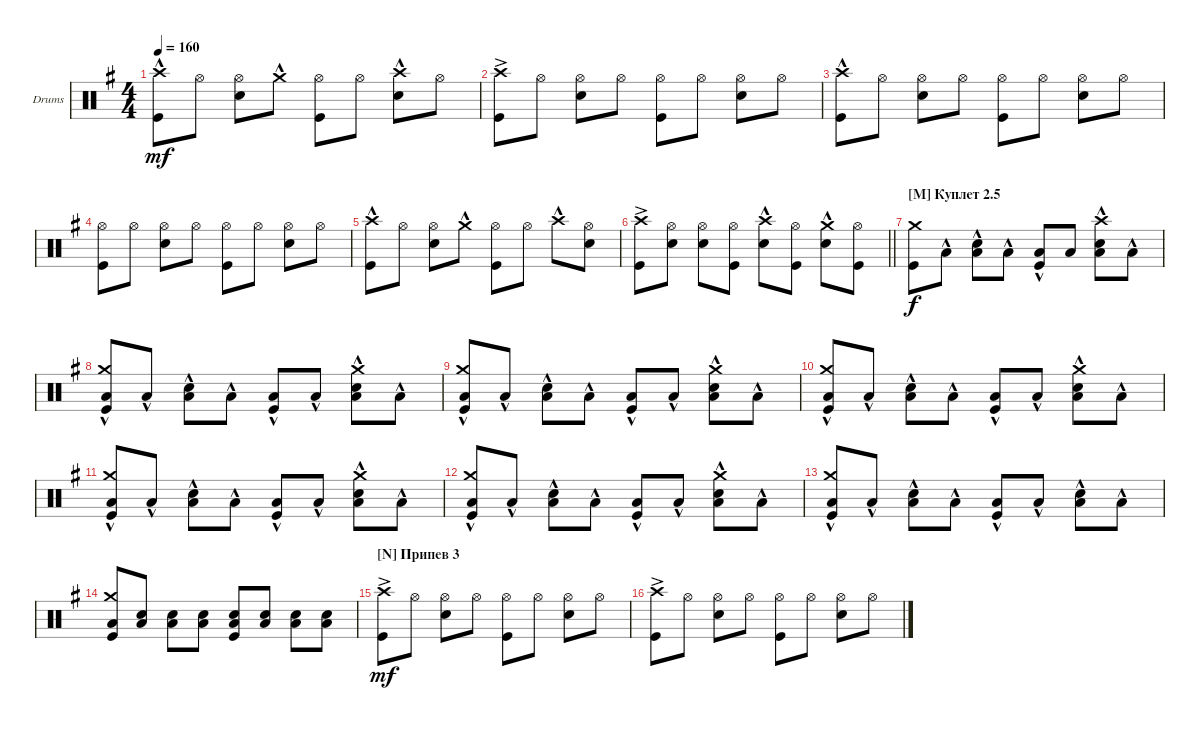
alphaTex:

\defaultSystemsLayout 4
\bracketExtendMode groupsimilarinstruments
\firstSystemTrackNameOrientation horizontal
\otherSystemsTrackNameOrientation horizontal
\track ("Drumkit" "Drums") {instrument percussion}
\staff {score}
\articulation defaults
\ts (4 4)
\tempo 160
\clef neutral
\ks eminor
("Kick (hit)" "Crash high (hit)"{hac}).8{dy mf} "Hi-Hat (open)".8 ("Hi-Hat (open)" "Snare (hit) 2").8 "Crash medium (hit)"{hac}.8 ("Hi-Hat (open)" "Kick (hit)").8 "Hi-Hat (open)".8 ("Crash high (hit)"{hac} "Snare (hit) 2").8 "Hi-Hat (open)".8 |
("Kick (hit)" "Crash high (hit)"{ac}).8 "Hi-Hat (open)".8 ("Hi-Hat (open)" "Snare (hit) 2").8 "Hi-Hat (open)".8 ("Hi-Hat (open)" "Kick (hit)").8 "Hi-Hat (open)".8 ("Hi-Hat (open)" "Snare (hit) 2").8 "Hi-Hat (open)".8 |
\scale
0.307692 ("Kick (hit)" "Crash high (hit)"{hac}).8 "Hi-Hat (open)".8 ("Hi-Hat (open)" "Snare (hit) 2").8 "Hi-Hat (open)".8 ("Hi-Hat (open)" "Kick (hit)").8 "Hi-Hat (open)".8 ("Hi-Hat (open)" "Snare (hit) 2").8 "Hi-Hat (open)".8 |
\scale
0.239769 ("Hi-Hat (open)" "Kick (hit)").8 "Hi-Hat (open)".8 ("Hi-Hat (open)" "Snare (hit) 2").8 "Hi-Hat (open)".8 ("Hi-Hat (open)" "Kick (hit)").8 "Hi-Hat (open)".8 ("Hi-Hat (open)" "Snare (hit) 2").8 "Hi-Hat (open)".8 |
\scale
0.222169 ("Kick (hit)" "Crash high (hit)"{hac}).8 "Hi-Hat (open)".8 ("Hi-Hat (open)" "Snare (hit) 2").8 "Crash medium (hit)"{hac}.8 ("Hi-Hat (open)" "Kick (hit)").8 "Hi-Hat (open)".8 "Crash high (hit)"{hac}.8 ("Hi-Hat (open)" "Snare (hit) 2").8 |
\section ("" "")
\scale
0.230769
\barLineRight lightlight
("Kick (hit)" "Crash high (hit)"{ac}).8 ("Hi-Hat (open)" "Snare (hit) 2").8 ("Hi-Hat (open)" "Snare (hit) 2").8 ("Hi-Hat (open)" "Kick (hit)").8 ("Snare (hit) 2" "Crash high (hit)"{hac}).8 ("Hi-Hat (open)" "Kick (hit)").8 ("Snare (hit) 2" "Crash medium (hit)"{hac}).8 ("Hi-Hat (open)" "Kick (hit)").8 |
\section ("M" "Куплет 2.5")
("Kick (hit)" "Crash medium (hit)").8{dy f} "Low Tom (hit)"{hac}.8 ("Snare (hit) 2" "Low Tom (hit)"{hac}).8 "Low Tom (hit)"{hac}.8 ("Kick (hit)" "Low Tom (hit)"{hac}).8 "Low Tom (hit)".8 ("Snare (hit) 2" "Low Tom (hit)"{hac} "Crash high (hit)").8 "Low Tom (hit)"{hac}.8 |
("Kick (hit)" "Low Tom (hit)"{hac} "Crash medium (hit)").8 "Low Tom (hit)"{hac}.8 ("Snare (hit) 2" "Low Tom (hit)"{hac}).8 "Low Tom (hit)"{hac}.8 ("Kick (hit)" "Low Tom (hit)"{hac}).8 "Low Tom (hit)"{hac}.8 ("Snare (hit) 2" "Low Tom (hit)"{hac} "Crash medium (hit)").8 "Low Tom (hit)"{hac}.8 |
("Kick (hit)" "Low Tom (hit)"{hac} "Crash medium (hit)").8 "Low Tom (hit)"{hac}.8 ("Snare (hit) 2" "Low Tom (hit)"{hac}).8 "Low Tom (hit)"{hac}.8 ("Kick (hit)" "Low Tom (hit)"{hac}).8 "Low Tom (hit)"{hac}.8 ("Snare (hit) 2" "Low Tom (hit)"{hac} "Crash medium (hit)").8 "Low Tom (hit)"{hac}.8 |
("Kick (hit)" "Low Tom (hit)"{hac} "Crash medium (hit)").8 "Low Tom (hit)"{hac}.8 ("Snare (hit) 2" "Low Tom (hit)"{hac}).8 "Low Tom (hit)"{hac}.8 ("Kick (hit)" "Low Tom (hit)"{hac}).8 "Low Tom (hit)"{hac}.8 ("Snare (hit) 2" "Low Tom (hit)"{hac} "Crash medium (hit)").8 "Low Tom (hit)"{hac}.8 |
("Kick (hit)" "Low Tom (hit)"{hac} "Crash medium (hit)").8 "Low Tom (hit)"{hac}.8 ("Snare (hit) 2" "Low Tom (hit)"{hac}).8 "Low Tom (hit)"{hac}.8 ("Kick (hit)" "Low Tom (hit)"{hac}).8 "Low Tom (hit)"{hac}.8 ("Snare (hit) 2" "Low Tom (hit)"{hac} "Crash medium (hit)").8 "Low Tom (hit)"{hac}.8 |
("Kick (hit)" "Low Tom (hit)"{hac} "Crash medium (hit)").8 "Low Tom (hit)"{hac}.8 ("Snare (hit) 2" "Low Tom (hit)"{hac}).8 "Low Tom (hit)"{hac}.8 ("Kick (hit)" "Low Tom (hit)"{hac}).8 "Low Tom (hit)"{hac}.8 ("Snare (hit) 2" "Low Tom (hit)"{hac} "Crash medium (hit)").8 "Low Tom (hit)"{hac}.8 |
("Kick (hit)" "Low Tom (hit)"{hac} "Crash medium (hit)").8 "Low Tom (hit)"{hac}.8 ("Snare (hit) 2" "Low Tom (hit)"{hac}).8 "Low Tom (hit)"{hac}.8 ("Kick (hit)" "Low Tom (hit)"{hac}).8 "Low Tom (hit)"{hac}.8 ("Snare (hit) 2" "Low Tom (hit)"{hac}).8 "Low Tom (hit)"{hac}.8 |
("Kick (hit)" "Low Tom (hit)" "Crash medium (hit)").8 ("Low Tom (hit)" "Snare (hit) 2").8 ("Snare (hit) 2" "Low Tom (hit)").8 ("Low Tom (hit)" "Snare (hit) 2").8 ("Kick (hit)" "Low Tom (hit)" "Snare (hit) 2").8 ("Low Tom (hit)" "Snare (hit) 2").8 ("Snare (hit) 2" "Low Tom (hit)").8 ("Low Tom (hit)" "Snare (hit) 2").8 |
\section ("N" "Припев 3")
("Kick (hit)" "Crash high (hit)"{ac}).8{dy mf} "Hi-Hat (open)".8 ("Hi-Hat (open)" "Snare (hit) 2").8 "Hi-Hat (open)".8 ("Hi-Hat (open)" "Kick (hit)").8 "Hi-Hat (open)".8 ("Hi-Hat (open)" "Snare (hit) 2").8 "Hi-Hat (open)".8 |
("Kick (hit)" "Crash high (hit)"{ac}).8 "Hi-Hat (open)".8 ("Hi-Hat (open)" "Snare (hit) 2").8 "Hi-Hat (open)".8 ("Hi-Hat (open)" "Kick (hit)").8 "Hi-Hat (open)".8 ("Hi-Hat (open)" "Snare (hit) 2").8 "Hi-Hat (open)".8
